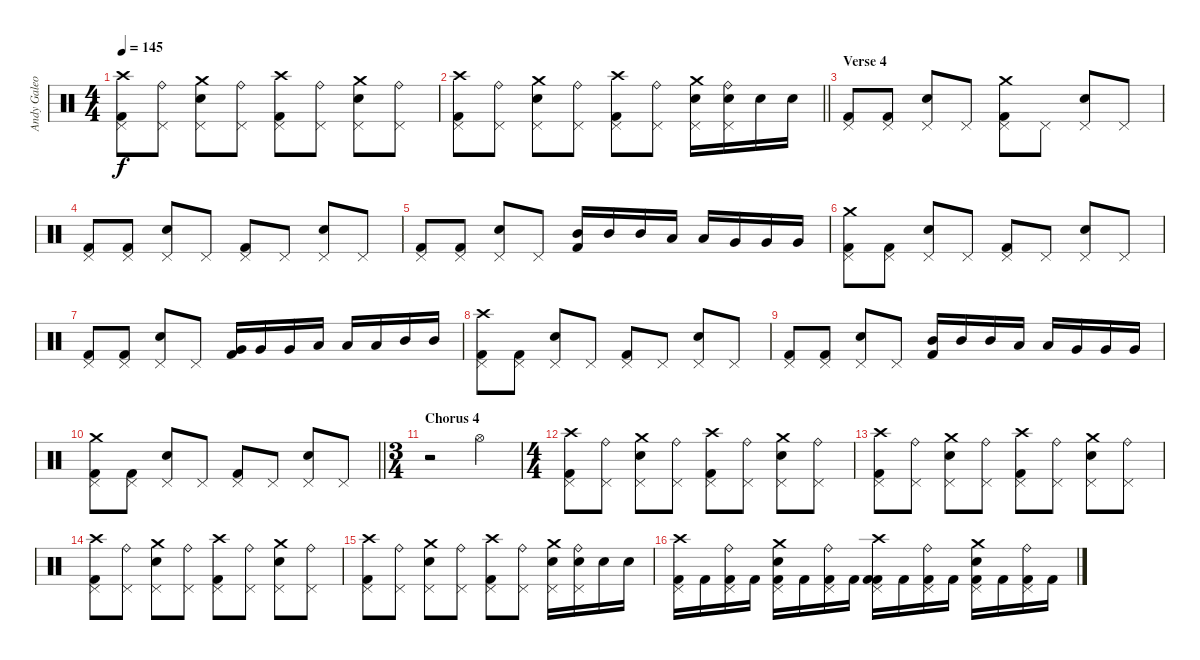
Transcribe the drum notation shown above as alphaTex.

\track ("Andy Galeon" "Andy Galeo") {instrument percussion}
\staff {score}
\articulation defaults
\ts (4 4)
\tempo 145
\clef neutral
\ks c
("Kick (hit) 2" "Pedal Hi-Hat (hit)" "Crash high (hit)").8{dy f} ("Pedal Hi-Hat (hit)" "Ride (bell)").8 ("Electric Snare (hit)" "Pedal Hi-Hat (hit)" "Crash medium (hit)").8 ("Pedal Hi-Hat (hit)" "Ride (bell)").8 ("Kick (hit) 2" "Pedal Hi-Hat (hit)" "Crash high (hit)").8 ("Pedal Hi-Hat (hit)" "Ride (bell)").8 ("Electric Snare (hit)" "Pedal Hi-Hat (hit)" "Crash medium (hit)").8 ("Pedal Hi-Hat (hit)" "Ride (bell)").8 |
\barLineRight lightlight
("Kick (hit) 2" "Pedal Hi-Hat (hit)" "Crash high (hit)").8 ("Pedal Hi-Hat (hit)" "Ride (bell)").8 ("Electric Snare (hit)" "Pedal Hi-Hat (hit)" "Crash medium (hit)").8 ("Pedal Hi-Hat (hit)" "Ride (bell)").8 ("Kick (hit) 2" "Pedal Hi-Hat (hit)" "Crash high (hit)").8 ("Pedal Hi-Hat (hit)" "Ride (bell)").8 ("Electric Snare (hit)" "Pedal Hi-Hat (hit)" "Crash medium (hit)").16 ("Electric Snare (hit)" "Pedal Hi-Hat (hit)" "Ride (bell)").16 "Electric Snare (hit)".16 "Electric Snare (hit)".16 |
\section ("" "Verse 4")
("Kick (hit) 2" "Pedal Hi-Hat (hit)").8 ("Kick (hit) 2" "Pedal Hi-Hat (hit)").8 ("Electric Snare (hit)" "Pedal Hi-Hat (hit)").8 "Pedal Hi-Hat (hit)".8 ("Kick (hit) 2" "Pedal Hi-Hat (hit)" "Crash medium (hit)").8 "Pedal Hi-Hat (hit)".8 ("Electric Snare (hit)" "Pedal Hi-Hat (hit)").8 "Pedal Hi-Hat (hit)".8 |
("Kick (hit) 2" "Pedal Hi-Hat (hit)").8 ("Kick (hit) 2" "Pedal Hi-Hat (hit)").8 ("Electric Snare (hit)" "Pedal Hi-Hat (hit)").8 "Pedal Hi-Hat (hit)".8 ("Kick (hit) 2" "Pedal Hi-Hat (hit)").8 "Pedal Hi-Hat (hit)".8 ("Electric Snare (hit)" "Pedal Hi-Hat (hit)").8 "Pedal Hi-Hat (hit)".8 |
("Kick (hit) 2" "Pedal Hi-Hat (hit)").8 ("Kick (hit) 2" "Pedal Hi-Hat (hit)").8 ("Electric Snare (hit)" "Pedal Hi-Hat (hit)").8 "Pedal Hi-Hat (hit)".8 ("Kick (hit) 2" "Mid Tom (hit)").16 "Mid Tom (hit)".16 "Mid Tom (hit)".16 "Low Tom (hit)".16 "Low Tom (hit)".16 "Very Low Tom (hit)".16 "Very Low Tom (hit)".16 "Very Low Tom (hit)".16 |
("Kick (hit) 2" "Pedal Hi-Hat (hit)" "Crash medium (hit)").8 ("Kick (hit) 2" "Pedal Hi-Hat (hit)").8 ("Electric Snare (hit)" "Pedal Hi-Hat (hit)").8 "Pedal Hi-Hat (hit)".8 ("Kick (hit) 2" "Pedal Hi-Hat (hit)").8 "Pedal Hi-Hat (hit)".8 ("Electric Snare (hit)" "Pedal Hi-Hat (hit)").8 "Pedal Hi-Hat (hit)".8 |
("Kick (hit) 2" "Pedal Hi-Hat (hit)").8 ("Kick (hit) 2" "Pedal Hi-Hat (hit)").8 ("Electric Snare (hit)" "Pedal Hi-Hat (hit)").8 "Pedal Hi-Hat (hit)".8 ("Kick (hit) 2" "Very Low Tom (hit)").16 "Very Low Tom (hit)".16 "Very Low Tom (hit)".16 "Low Tom (hit)".16 "Low Tom (hit)".16 "Low Tom (hit)".16 "Mid Tom (hit)".16 "Mid Tom (hit)".16 |
("Kick (hit) 2" "Pedal Hi-Hat (hit)" "Crash high (hit)").8 ("Kick (hit) 2" "Pedal Hi-Hat (hit)").8 ("Electric Snare (hit)" "Pedal Hi-Hat (hit)").8 "Pedal Hi-Hat (hit)".8 ("Kick (hit) 2" "Pedal Hi-Hat (hit)").8 "Pedal Hi-Hat (hit)".8 ("Electric Snare (hit)" "Pedal Hi-Hat (hit)").8 "Pedal Hi-Hat (hit)".8 |
("Kick (hit) 2" "Pedal Hi-Hat (hit)").8 ("Kick (hit) 2" "Pedal Hi-Hat (hit)").8 ("Electric Snare (hit)" "Pedal Hi-Hat (hit)").8 "Pedal Hi-Hat (hit)".8 ("Kick (hit) 2" "Mid Tom (hit)").16 "Mid Tom (hit)".16 "Mid Tom (hit)".16 "Low Tom (hit)".16 "Low Tom (hit)".16 "Very Low Tom (hit)".16 "Very Low Tom (hit)".16 "Very Low Tom (hit)".16 |
\barLineRight lightlight
("Kick (hit) 2" "Pedal Hi-Hat (hit)" "Crash medium (hit)").8 ("Kick (hit) 2" "Pedal Hi-Hat (hit)").8 ("Electric Snare (hit)" "Pedal Hi-Hat (hit)").8 "Pedal Hi-Hat (hit)".8 ("Kick (hit) 2" "Pedal Hi-Hat (hit)").8 "Pedal Hi-Hat (hit)".8 ("Electric Snare (hit)" "Pedal Hi-Hat (hit)").8 "Pedal Hi-Hat (hit)".8 |
\ts (3 4)
\section ("" "Chorus 4")
r.2 "Hi-Hat (open)".4 |
\ts (4 4)
("Kick (hit) 2" "Pedal Hi-Hat (hit)" "Crash high (hit)").8 ("Pedal Hi-Hat (hit)" "Ride (bell)").8 ("Electric Snare (hit)" "Pedal Hi-Hat (hit)" "Crash medium (hit)").8 ("Pedal Hi-Hat (hit)" "Ride (bell)").8 ("Kick (hit) 2" "Pedal Hi-Hat (hit)" "Crash high (hit)").8 ("Pedal Hi-Hat (hit)" "Ride (bell)").8 ("Electric Snare (hit)" "Pedal Hi-Hat (hit)" "Crash medium (hit)").8 ("Pedal Hi-Hat (hit)" "Ride (bell)").8 |
("Kick (hit) 2" "Pedal Hi-Hat (hit)" "Crash high (hit)").8 ("Pedal Hi-Hat (hit)" "Ride (bell)").8 ("Electric Snare (hit)" "Pedal Hi-Hat (hit)" "Crash medium (hit)").8 ("Pedal Hi-Hat (hit)" "Ride (bell)").8 ("Kick (hit) 2" "Pedal Hi-Hat (hit)" "Crash high (hit)").8 ("Pedal Hi-Hat (hit)" "Ride (bell)").8 ("Electric Snare (hit)" "Pedal Hi-Hat (hit)" "Crash medium (hit)").8 ("Pedal Hi-Hat (hit)" "Ride (bell)").8 |
("Kick (hit) 2" "Pedal Hi-Hat (hit)" "Crash high (hit)").8 ("Pedal Hi-Hat (hit)" "Ride (bell)").8 ("Electric Snare (hit)" "Pedal Hi-Hat (hit)" "Crash medium (hit)").8 ("Pedal Hi-Hat (hit)" "Ride (bell)").8 ("Kick (hit) 2" "Pedal Hi-Hat (hit)" "Crash high (hit)").8 ("Pedal Hi-Hat (hit)" "Ride (bell)").8 ("Electric Snare (hit)" "Pedal Hi-Hat (hit)" "Crash medium (hit)").8 ("Pedal Hi-Hat (hit)" "Ride (bell)").8 |
("Kick (hit) 2" "Pedal Hi-Hat (hit)" "Crash high (hit)").8 ("Pedal Hi-Hat (hit)" "Ride (bell)").8 ("Electric Snare (hit)" "Pedal Hi-Hat (hit)" "Crash medium (hit)").8 ("Pedal Hi-Hat (hit)" "Ride (bell)").8 ("Kick (hit) 2" "Pedal Hi-Hat (hit)" "Crash high (hit)").8 ("Pedal Hi-Hat (hit)" "Ride (bell)").8 ("Electric Snare (hit)" "Pedal Hi-Hat (hit)" "Crash medium (hit)").16 ("Electric Snare (hit)" "Pedal Hi-Hat (hit)" "Ride (bell)").16 "Electric Snare (hit)".16 "Electric Snare (hit)".16 |
("Kick (hit) 2" "Pedal Hi-Hat (hit)" "Crash high (hit)").16 "Kick (hit) 2".16 ("Kick (hit) 2" "Pedal Hi-Hat (hit)" "Ride (bell)").16 "Kick (hit) 2".16 ("Electric Snare (hit)" "Kick (hit) 2" "Pedal Hi-Hat (hit)" "Crash medium (hit)").16 "Kick (hit) 2".16 ("Kick (hit) 2" "Pedal Hi-Hat (hit)" "Ride (bell)").16 "Kick (hit) 2".16 ("Kick (hit) 2" "Kick (hit) 2" "Pedal Hi-Hat (hit)" "Crash high (hit)").16 "Kick (hit) 2".16 ("Kick (hit) 2" "Pedal Hi-Hat (hit)" "Ride (bell)").16 "Kick (hit) 2".16 ("Electric Snare (hit)" "Kick (hit) 2" "Pedal Hi-Hat (hit)" "Crash medium (hit)").16 "Kick (hit) 2".16 ("Kick (hit) 2" "Pedal Hi-Hat (hit)" "Ride (bell)").16 "Kick (hit) 2".16
